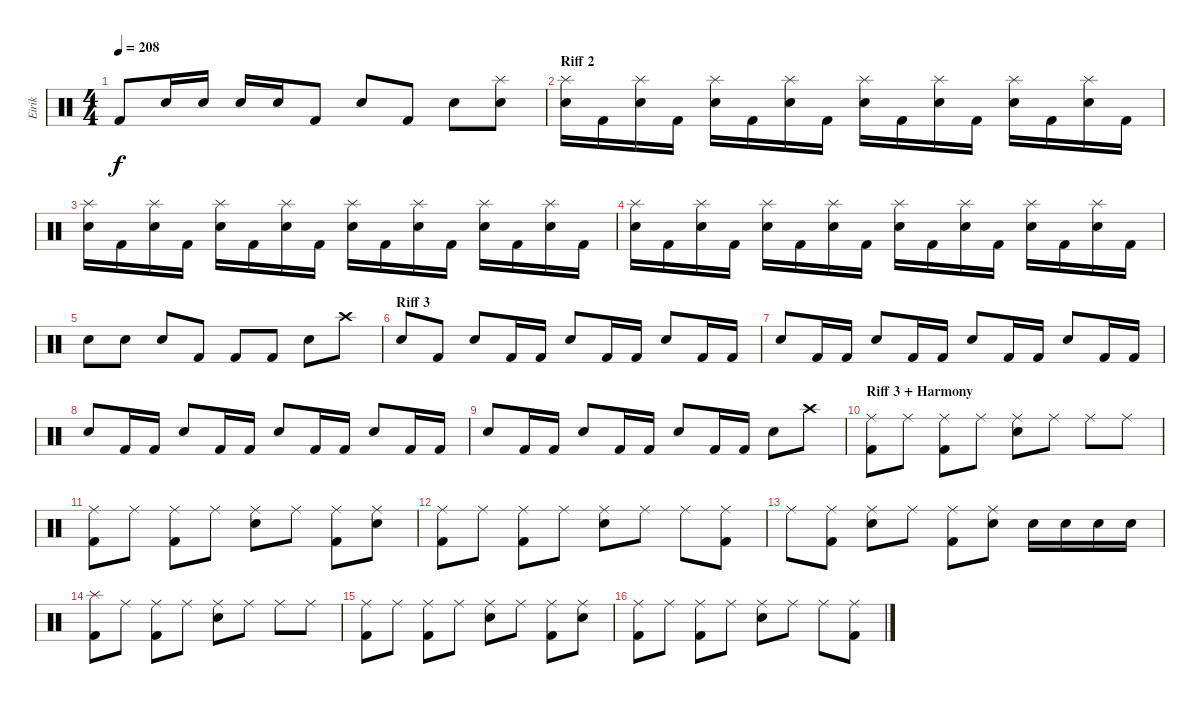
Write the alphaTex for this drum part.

\track ("Eirik" "Eirik") {instrument percussion}
\staff {score}
\articulation defaults
\ts (4 4)
\tempo 208
\clef neutral
\ks c "Kick (hit) 2".8{dy f} "Snare (hit) 2".16 "Snare (hit) 2".16 "Snare (hit) 2".16 "Snare (hit) 2".16 "Kick (hit) 2".8 "Snare (hit) 2".8 "Kick (hit) 2".8 "Snare (hit) 2".8
("Splash (hit)" "Snare (hit) 2").8 |
\section ("" "Riff 2")
("Splash (hit)" "Snare (hit) 2").16 "Kick (hit) 2".16 ("Splash (hit)" "Snare (hit) 2").16 "Kick (hit) 2".16 ("Splash (hit)" "Snare (hit) 2").16 "Kick (hit) 2".16 ("Splash (hit)" "Snare (hit) 2").16 "Kick (hit) 2".16 ("Splash (hit)" "Snare (hit) 2").16 "Kick (hit) 2".16 ("Splash (hit)" "Snare (hit) 2").16 "Kick (hit) 2".16 ("Splash (hit)" "Snare (hit) 2").16 "Kick (hit) 2".16 ("Splash (hit)" "Snare (hit) 2").16 "Kick (hit) 2".16 |
("Splash (hit)" "Snare (hit) 2").16 "Kick (hit) 2".16 ("Splash (hit)" "Snare (hit) 2").16 "Kick (hit) 2".16 ("Splash (hit)" "Snare (hit) 2").16 "Kick (hit) 2".16 ("Splash (hit)" "Snare (hit) 2").16 "Kick (hit) 2".16 ("Splash (hit)" "Snare (hit) 2").16 "Kick (hit) 2".16 ("Splash (hit)" "Snare (hit) 2").16 "Kick (hit) 2".16 ("Splash (hit)" "Snare (hit) 2").16 "Kick (hit) 2".16 ("Splash (hit)" "Snare (hit) 2").16 "Kick (hit) 2".16 |
("Splash (hit)" "Snare (hit) 2").16 "Kick (hit) 2".16 ("Splash (hit)" "Snare (hit) 2").16 "Kick (hit) 2".16 ("Splash (hit)" "Snare (hit) 2").16 "Kick (hit) 2".16 ("Splash (hit)" "Snare (hit) 2").16 "Kick (hit) 2".16 ("Splash (hit)" "Snare (hit) 2").16 "Kick (hit) 2".16 ("Splash (hit)" "Snare (hit) 2").16 "Kick (hit) 2".16 ("Splash (hit)" "Snare (hit) 2").16 "Kick (hit) 2".16 ("Splash (hit)" "Snare (hit) 2").16 "Kick (hit) 2".16 |
"Snare (hit) 2".8 "Snare (hit) 2".8 "Snare (hit) 2".8 "Kick (hit) 2".8 "Kick (hit) 2".8 "Kick (hit) 2".8 "Snare (hit) 2".8 "Crash high (hit)".8 |
\section ("" "Riff 3")
"Snare (hit) 2".8 "Kick (hit) 2".8 "Snare (hit) 2".8 "Kick (hit) 2".16 "Kick (hit) 2".16 "Snare (hit) 2".8 "Kick (hit) 2".16 "Kick (hit) 2".16 "Snare (hit) 2".8 "Kick (hit) 2".16 "Kick (hit) 2".16 |
"Snare (hit) 2".8 "Kick (hit) 2".16 "Kick (hit) 2".16 "Snare (hit) 2".8 "Kick (hit) 2".16 "Kick (hit) 2".16 "Snare (hit) 2".8 "Kick (hit) 2".16 "Kick (hit) 2".16 "Snare (hit) 2".8 "Kick (hit) 2".16 "Kick (hit) 2".16 |
"Snare (hit) 2".8 "Kick (hit) 2".16 "Kick (hit) 2".16 "Snare (hit) 2".8 "Kick (hit) 2".16 "Kick (hit) 2".16 "Snare (hit) 2".8 "Kick (hit) 2".16 "Kick (hit) 2".16 "Snare (hit) 2".8 "Kick (hit) 2".16 "Kick (hit) 2".16 |
"Snare (hit) 2".8 "Kick (hit) 2".16 "Kick (hit) 2".16 "Snare (hit) 2".8 "Kick (hit) 2".16 "Kick (hit) 2".16 "Snare (hit) 2".8 "Kick (hit) 2".16 "Kick (hit) 2".16 "Snare (hit) 2".8 "Crash high (hit)".8 |
\section ("" "Riff 3 + Harmony")
("Ride (middle)" "Kick (hit) 2").8 "Ride (middle)".8 ("Ride (middle)" "Kick (hit) 2").8 "Ride (middle)".8 ("Ride (middle)" "Snare (hit) 2").8 "Ride (middle)".8 "Ride (middle)".8 "Ride (middle)".8 |
("Ride (middle)" "Kick (hit) 2").8 "Ride (middle)".8 ("Ride (middle)" "Kick (hit) 2").8 "Ride (middle)".8 ("Ride (middle)" "Snare (hit) 2").8 "Ride (middle)".8 ("Ride (middle)" "Kick (hit) 2").8 ("Ride (middle)" "Snare (hit) 2").8 |
("Ride (middle)" "Kick (hit) 2").8 "Ride (middle)".8 ("Ride (middle)" "Kick (hit) 2").8 "Ride (middle)".8 ("Ride (middle)" "Snare (hit) 2").8 "Ride (middle)".8 "Ride (middle)".8 ("Ride (middle)" "Kick (hit) 2").8 |
"Ride (middle)".8 ("Ride (middle)" "Kick (hit) 2").8 ("Ride (middle)" "Snare (hit) 2").8 "Ride (middle)".8 ("Ride (middle)" "Kick (hit) 2").8 ("Ride (middle)" "Snare (hit) 2").8 "Snare (hit) 2".16 "Snare (hit) 2".16 "Snare (hit) 2".16 "Snare (hit) 2".16 |
("Splash (hit)" "Kick (hit) 2").8 "Ride (middle)".8 ("Ride (middle)" "Kick (hit) 2").8 "Ride (middle)".8 ("Ride (middle)" "Snare (hit) 2").8 "Ride (middle)".8 "Ride (middle)".8 "Ride (middle)".8 |
("Ride (middle)" "Kick (hit) 2").8 "Ride (middle)".8 ("Ride (middle)" "Kick (hit) 2").8 "Ride (middle)".8 ("Ride (middle)" "Snare (hit) 2").8 "Ride (middle)".8 ("Ride (middle)" "Kick (hit) 2").8 ("Ride (middle)" "Snare (hit) 2").8 |
("Ride (middle)" "Kick (hit) 2").8 "Ride (middle)".8 ("Ride (middle)" "Kick (hit) 2").8 "Ride (middle)".8 ("Ride (middle)" "Snare (hit) 2").8 "Ride (middle)".8 "Ride (middle)".8 ("Ride (middle)" "Kick (hit) 2").8
